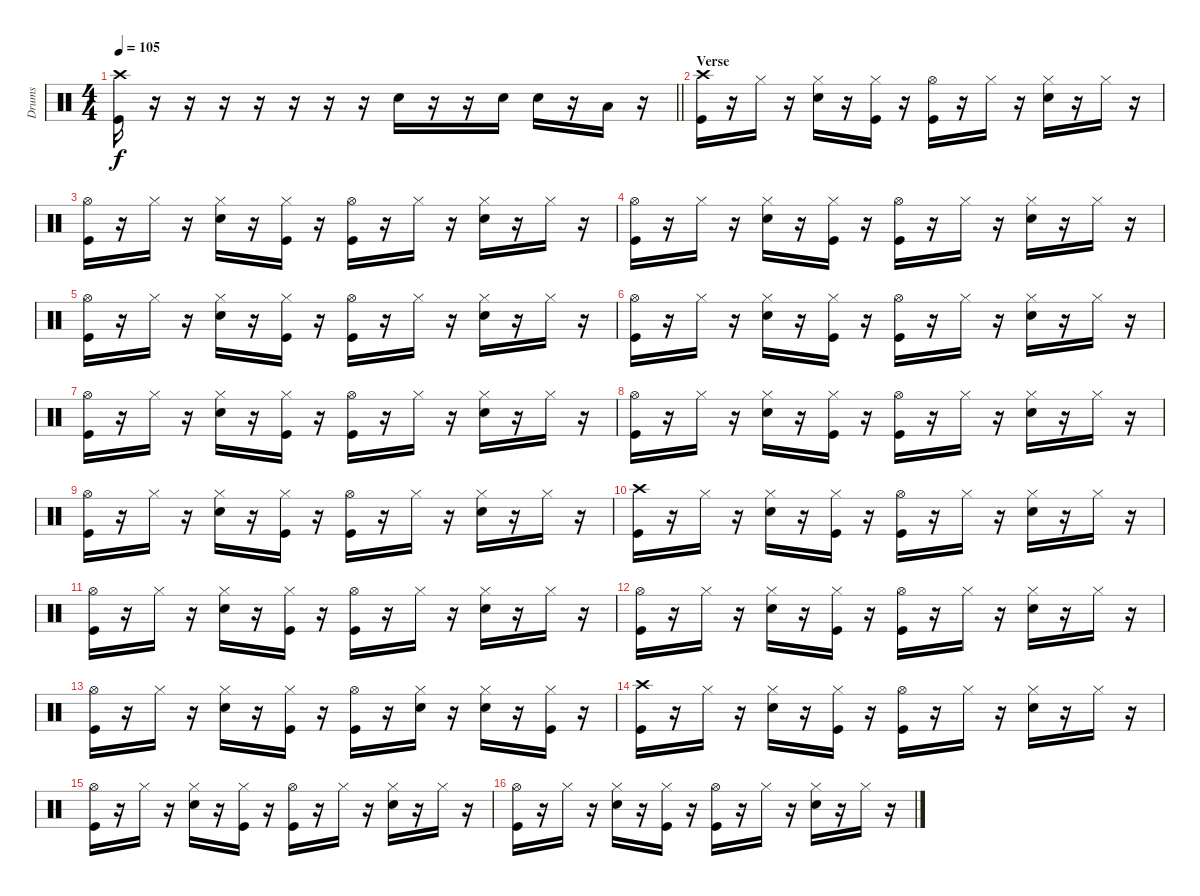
\track ("Drums" "Drums") {instrument percussion}
\staff {score}
\articulation defaults
\ts (4 4)
\tempo 105
\clef neutral
\barLineRight lightlight
\ks c
("Crash high (hit)" "Kick (hit)").16{dy f} r.16 r.16 r.16 r.16 r.16 r.16 r.16 "Snare (hit) 2".16 r.16 r.16 "Snare (hit) 2".16 "Snare (hit) 2".16 r.16 "Low Tom (hit)".16 r.16 |
\section ("" "Verse")
("Crash high (hit)" "Kick (hit)").16 r.16 "Hi-Hat (closed)".16 r.16 ("Hi-Hat (closed)" "Snare (hit) 2").16 r.16 ("Hi-Hat (closed)" "Kick (hit)").16 r.16 ("Hi-Hat (open)" "Kick (hit)").16 r.16 "Hi-Hat (closed)".16 r.16 ("Hi-Hat (closed)" "Snare (hit) 2").16 r.16 "Hi-Hat (closed)".16 r.16 |
("Hi-Hat (open)" "Kick (hit)").16 r.16 "Hi-Hat (closed)".16 r.16 ("Hi-Hat (closed)" "Snare (hit) 2").16 r.16 ("Hi-Hat (closed)" "Kick (hit)").16 r.16 ("Hi-Hat (open)" "Kick (hit)").16 r.16 "Hi-Hat (closed)".16 r.16 ("Hi-Hat (closed)" "Snare (hit) 2").16 r.16 "Hi-Hat (closed)".16 r.16 |
("Hi-Hat (open)" "Kick (hit)").16 r.16 "Hi-Hat (closed)".16 r.16 ("Hi-Hat (closed)" "Snare (hit) 2").16 r.16 ("Hi-Hat (closed)" "Kick (hit)").16 r.16 ("Hi-Hat (open)" "Kick (hit)").16 r.16 "Hi-Hat (closed)".16 r.16 ("Hi-Hat (closed)" "Snare (hit) 2").16 r.16 "Hi-Hat (closed)".16 r.16 |
("Hi-Hat (open)" "Kick (hit)").16 r.16 "Hi-Hat (closed)".16 r.16 ("Hi-Hat (closed)" "Snare (hit) 2").16 r.16 ("Hi-Hat (closed)" "Kick (hit)").16 r.16 ("Hi-Hat (open)" "Kick (hit)").16 r.16 "Hi-Hat (closed)".16 r.16 ("Hi-Hat (closed)" "Snare (hit) 2").16 r.16 "Hi-Hat (closed)".16 r.16 |
("Hi-Hat (open)" "Kick (hit)").16 r.16 "Hi-Hat (closed)".16 r.16 ("Hi-Hat (closed)" "Snare (hit) 2").16 r.16 ("Hi-Hat (closed)" "Kick (hit)").16 r.16 ("Hi-Hat (open)" "Kick (hit)").16 r.16 "Hi-Hat (closed)".16 r.16 ("Hi-Hat (closed)" "Snare (hit) 2").16 r.16 "Hi-Hat (closed)".16 r.16 |
("Hi-Hat (open)" "Kick (hit)").16 r.16 "Hi-Hat (closed)".16 r.16 ("Hi-Hat (closed)" "Snare (hit) 2").16 r.16 ("Hi-Hat (closed)" "Kick (hit)").16 r.16 ("Hi-Hat (open)" "Kick (hit)").16 r.16 "Hi-Hat (closed)".16 r.16 ("Hi-Hat (closed)" "Snare (hit) 2").16 r.16 "Hi-Hat (closed)".16 r.16 |
("Hi-Hat (open)" "Kick (hit)").16 r.16 "Hi-Hat (closed)".16 r.16 ("Hi-Hat (closed)" "Snare (hit) 2").16 r.16 ("Hi-Hat (closed)" "Kick (hit)").16 r.16 ("Hi-Hat (open)" "Kick (hit)").16 r.16 "Hi-Hat (closed)".16 r.16 ("Hi-Hat (closed)" "Snare (hit) 2").16 r.16 "Hi-Hat (closed)".16 r.16 |
("Hi-Hat (open)" "Kick (hit)").16 r.16 "Hi-Hat (closed)".16 r.16 ("Hi-Hat (closed)" "Snare (hit) 2").16 r.16 ("Hi-Hat (closed)" "Kick (hit)").16 r.16 ("Hi-Hat (open)" "Kick (hit)").16 r.16 "Hi-Hat (closed)".16 r.16 ("Hi-Hat (closed)" "Snare (hit) 2").16 r.16 "Hi-Hat (closed)".16 r.16 |
("Crash high (hit)" "Kick (hit)").16 r.16 "Hi-Hat (closed)".16 r.16 ("Hi-Hat (closed)" "Snare (hit) 2").16 r.16 ("Hi-Hat (closed)" "Kick (hit)").16 r.16 ("Hi-Hat (open)" "Kick (hit)").16 r.16 "Hi-Hat (closed)".16 r.16 ("Hi-Hat (closed)" "Snare (hit) 2").16 r.16 "Hi-Hat (closed)".16 r.16 |
("Hi-Hat (open)" "Kick (hit)").16 r.16 "Hi-Hat (closed)".16 r.16 ("Hi-Hat (closed)" "Snare (hit) 2").16 r.16 ("Hi-Hat (closed)" "Kick (hit)").16 r.16 ("Hi-Hat (open)" "Kick (hit)").16 r.16 "Hi-Hat (closed)".16 r.16 ("Hi-Hat (closed)" "Snare (hit) 2").16 r.16 "Hi-Hat (closed)".16 r.16 |
("Hi-Hat (open)" "Kick (hit)").16 r.16 "Hi-Hat (closed)".16 r.16 ("Hi-Hat (closed)" "Snare (hit) 2").16 r.16 ("Hi-Hat (closed)" "Kick (hit)").16 r.16 ("Hi-Hat (open)" "Kick (hit)").16 r.16 "Hi-Hat (closed)".16 r.16 ("Hi-Hat (closed)" "Snare (hit) 2").16 r.16 "Hi-Hat (closed)".16 r.16 |
("Hi-Hat (open)" "Kick (hit)").16 r.16 "Hi-Hat (closed)".16 r.16 ("Hi-Hat (closed)" "Snare (hit) 2").16 r.16 ("Hi-Hat (closed)" "Kick (hit)").16 r.16 ("Hi-Hat (open)" "Kick (hit)").16 r.16 ("Hi-Hat (closed)" "Snare (hit) 2").16 r.16 ("Hi-Hat (closed)" "Snare (hit) 2").16 r.16 ("Hi-Hat (closed)" "Kick (hit)").16 r.16 |
("Crash high (hit)" "Kick (hit)").16 r.16 "Hi-Hat (closed)".16 r.16 ("Hi-Hat (closed)" "Snare (hit) 2").16 r.16 ("Hi-Hat (closed)" "Kick (hit)").16 r.16 ("Hi-Hat (open)" "Kick (hit)").16 r.16 "Hi-Hat (closed)".16 r.16 ("Hi-Hat (closed)" "Snare (hit) 2").16 r.16 "Hi-Hat (closed)".16 r.16 |
("Hi-Hat (open)" "Kick (hit)").16 r.16 "Hi-Hat (closed)".16 r.16 ("Hi-Hat (closed)" "Snare (hit) 2").16 r.16 ("Hi-Hat (closed)" "Kick (hit)").16 r.16 ("Hi-Hat (open)" "Kick (hit)").16 r.16 "Hi-Hat (closed)".16 r.16 ("Hi-Hat (closed)" "Snare (hit) 2").16 r.16 "Hi-Hat (closed)".16 r.16 |
("Hi-Hat (open)" "Kick (hit)").16 r.16 "Hi-Hat (closed)".16 r.16 ("Hi-Hat (closed)" "Snare (hit) 2").16 r.16 ("Hi-Hat (closed)" "Kick (hit)").16 r.16 ("Hi-Hat (open)" "Kick (hit)").16 r.16 "Hi-Hat (closed)".16 r.16 ("Hi-Hat (closed)" "Snare (hit) 2").16 r.16 "Hi-Hat (closed)".16 r.16
